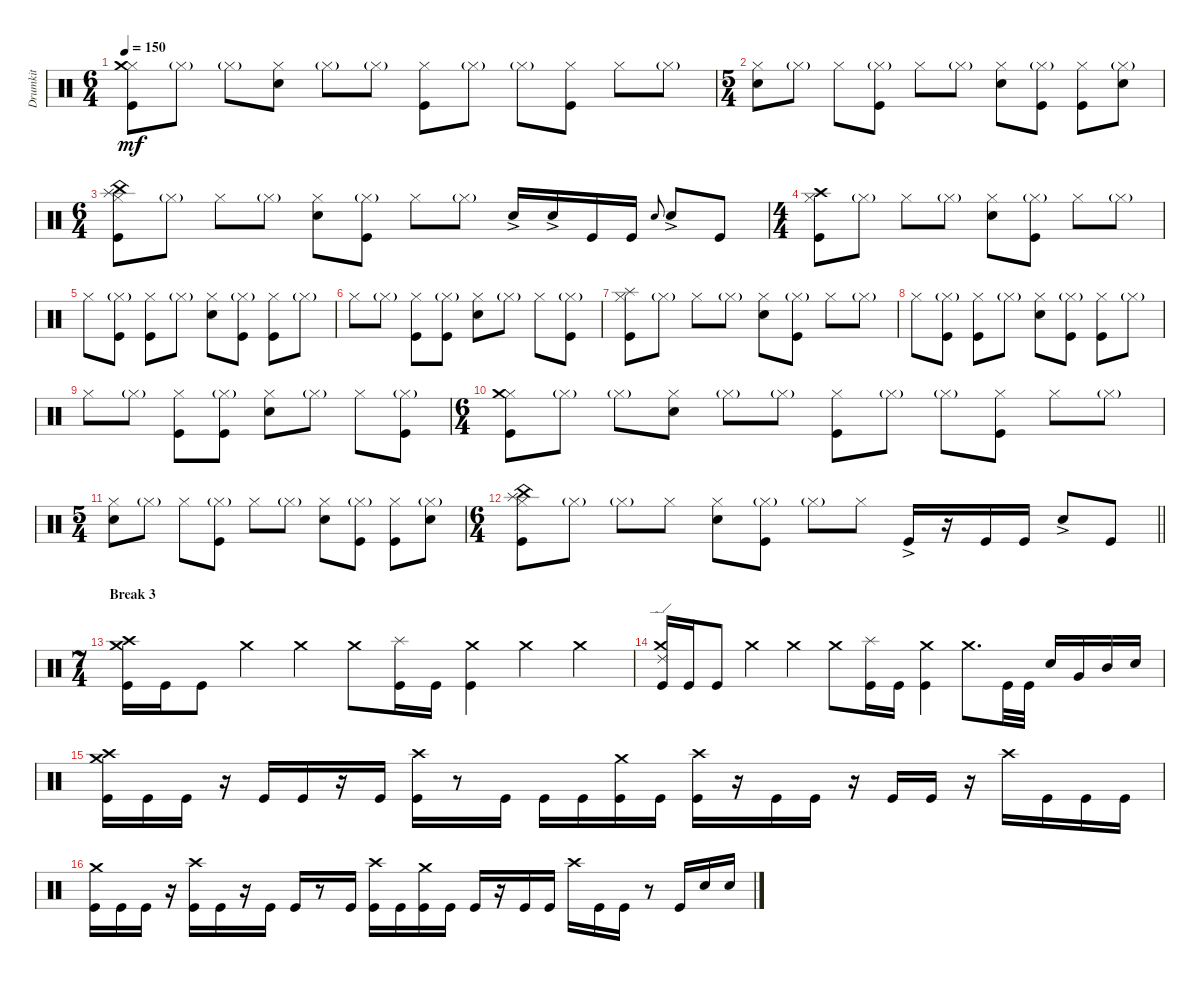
\track ("Drumkit" "Drumkit") {instrument percussion}
\staff {score}
\articulation defaults
\ts (6 4)
\tempo 150
\clef neutral
\ks c
("Hi-Hat (closed)" "Kick (hit)" "Crash medium (hit)").8{dy mf} "Hi-Hat (closed)"{g}.8 "Hi-Hat (closed)"{g}.8 ("Hi-Hat (closed)" "Snare (hit) 2").8 "Hi-Hat (closed)"{g}.8 "Hi-Hat (closed)"{g}.8 ("Hi-Hat (closed)" "Kick (hit)").8 "Hi-Hat (closed)"{g}.8 "Hi-Hat (closed)"{g}.8 ("Hi-Hat (closed)" "Kick (hit)").8 "Hi-Hat (closed)".8 "Hi-Hat (closed)"{g}.8 |
\ts (5 4)
("Snare (hit) 2" "Hi-Hat (closed)").8 "Hi-Hat (closed)"{g}.8 "Hi-Hat (closed)".8 ("Hi-Hat (closed)"{g} "Kick (hit)").8 "Hi-Hat (closed)".8 "Hi-Hat (closed)"{g}.8 ("Hi-Hat (closed)" "Snare (hit) 2").8 ("Hi-Hat (closed)"{g} "Kick (hit)").8 ("Hi-Hat (closed)" "Kick (hit)").8 ("Hi-Hat (closed)"{g} "Snare (hit) 2").8 |
\ts (6 4)
("Hi-Hat (closed)" "Kick (hit)" "Splash (hit)" "China (hit)").8 "Hi-Hat (closed)"{g}.8 "Hi-Hat (closed)".8 "Hi-Hat (closed)"{g}.8 ("Hi-Hat (closed)" "Snare (hit) 2").8 ("Hi-Hat (closed)"{g} "Kick (hit)").8 "Hi-Hat (closed)".8 "Hi-Hat (closed)"{g}.8 "Snare (hit) 2"{ac}.16 "Snare (hit) 2"{ac}.16 "Kick (hit)".16 "Kick (hit)".16 "Snare (hit)".8{gr onbeat} "Snare (hit) 2"{ac}.8 "Kick (hit)".8 |
\ts (4 4)
("Hi-Hat (closed)" "Crash high (hit)" "Kick (hit)").8 "Hi-Hat (closed)"{g}.8 "Hi-Hat (closed)".8 "Hi-Hat (closed)"{g}.8 ("Hi-Hat (closed)" "Snare (hit) 2").8 ("Hi-Hat (closed)"{g} "Kick (hit)").8 "Hi-Hat (closed)".8 "Hi-Hat (closed)"{g}.8 |
"Hi-Hat (closed)".8 ("Hi-Hat (closed)"{g} "Kick (hit)").8 ("Hi-Hat (closed)" "Kick (hit)").8 "Hi-Hat (closed)"{g}.8 ("Hi-Hat (closed)" "Snare (hit) 2").8 ("Hi-Hat (closed)"{g} "Kick (hit)").8 ("Hi-Hat (closed)" "Kick (hit)").8 "Hi-Hat (closed)"{g}.8 |
"Hi-Hat (closed)".8 "Hi-Hat (closed)"{g}.8 ("Hi-Hat (closed)" "Kick (hit)").8 ("Hi-Hat (closed)"{g} "Kick (hit)").8 ("Hi-Hat (closed)" "Snare (hit) 2").8 "Hi-Hat (closed)"{g}.8 "Hi-Hat (closed)".8 ("Hi-Hat (closed)"{g} "Kick (hit)").8 |
("Hi-Hat (closed)" "Kick (hit)" "Splash (hit)").8 "Hi-Hat (closed)"{g}.8 "Hi-Hat (closed)".8 "Hi-Hat (closed)"{g}.8 ("Hi-Hat (closed)" "Snare (hit) 2").8 ("Hi-Hat (closed)"{g} "Kick (hit)").8 "Hi-Hat (closed)".8 "Hi-Hat (closed)"{g}.8 |
"Hi-Hat (closed)".8 ("Hi-Hat (closed)"{g} "Kick (hit)").8 ("Hi-Hat (closed)" "Kick (hit)").8 "Hi-Hat (closed)"{g}.8 ("Hi-Hat (closed)" "Snare (hit) 2").8 ("Hi-Hat (closed)"{g} "Kick (hit)").8 ("Hi-Hat (closed)" "Kick (hit)").8 "Hi-Hat (closed)"{g}.8 |
"Hi-Hat (closed)".8 "Hi-Hat (closed)"{g}.8 ("Hi-Hat (closed)" "Kick (hit)").8 ("Hi-Hat (closed)"{g} "Kick (hit)").8 ("Hi-Hat (closed)" "Snare (hit) 2").8 "Hi-Hat (closed)"{g}.8 "Hi-Hat (closed)".8 ("Hi-Hat (closed)"{g} "Kick (hit)").8 |
\ts (6 4)
("Hi-Hat (closed)" "Kick (hit)" "Crash medium (hit)").8 "Hi-Hat (closed)"{g}.8 "Hi-Hat (closed)"{g}.8 ("Hi-Hat (closed)" "Snare (hit) 2").8 "Hi-Hat (closed)"{g}.8 "Hi-Hat (closed)"{g}.8 ("Hi-Hat (closed)" "Kick (hit)").8 "Hi-Hat (closed)"{g}.8 "Hi-Hat (closed)"{g}.8 ("Hi-Hat (closed)" "Kick (hit)").8 "Hi-Hat (closed)".8 "Hi-Hat (closed)"{g}.8 |
\ts (5 4)
("Snare (hit) 2" "Hi-Hat (closed)").8 "Hi-Hat (closed)"{g}.8 "Hi-Hat (closed)".8 ("Hi-Hat (closed)"{g} "Kick (hit)").8 "Hi-Hat (closed)".8 "Hi-Hat (closed)"{g}.8 ("Hi-Hat (closed)" "Snare (hit) 2").8 ("Hi-Hat (closed)"{g} "Kick (hit)").8 ("Hi-Hat (closed)" "Kick (hit)").8 ("Hi-Hat (closed)"{g} "Snare (hit) 2").8 |
\ts (6 4)
\barLineRight lightlight
("Hi-Hat (closed)" "Kick (hit)" "Splash (hit)" "China (hit)").8 "Hi-Hat (closed)"{g}.8 "Hi-Hat (closed)"{g}.8 "Hi-Hat (closed)".8 ("Hi-Hat (closed)" "Snare (hit) 2").8 ("Hi-Hat (closed)"{g} "Kick (hit)").8 "Hi-Hat (closed)"{g}.8 "Hi-Hat (closed)".8 "Kick (hit)"{ac}.16 r.16 "Kick (hit)".16 "Kick (hit)".16 "Snare (hit) 2"{ac}.8 "Kick (hit)".8 |
\ts (7 4)
\section ("" "Break 3")
("Kick (hit)" "Crash medium (hit)" "Crash high (hit)").16 "Kick (hit)".16 "Kick (hit)".8 "Crash medium (hit)".4 "Crash medium (hit)".4 "Crash medium (hit)".8 ("Kick (hit)" "Splash (hit)").16 "Kick (hit)".16 ("Kick (hit)" "Crash medium (hit)").4 "Crash medium (hit)".4 "Crash medium (hit)".4 |
("Kick (hit)" "Crash medium (hit)" "Ride (edge) 2").16 "Kick (hit)".16 "Kick (hit)".8 "Crash medium (hit)".4 "Crash medium (hit)".4 "Crash medium (hit)".8 ("Kick (hit)" "Splash (hit)").16 "Kick (hit)".16 ("Kick (hit)" "Crash medium (hit)").4 "Crash medium (hit)".8{d} "Kick (hit)".32 "Kick (hit)".32 "Snare (hit) 2".16 "Very Low Tom (hit)".16 "Mid Tom (hit)".16 "Snare (hit) 2".16 |
("Kick (hit)" "Crash high (hit)" "Crash medium (hit)").16 "Kick (hit)".16 "Kick (hit)".16 r.16 "Kick (hit)".16 "Kick (hit)".16 r.16 "Kick (hit)".16 ("Kick (hit)" "Crash high (hit)").16 r.8 "Kick (hit)".16 "Kick (hit)".16 "Kick (hit)".16 ("Kick (hit)" "Crash medium (hit)").16 "Kick (hit)".16 ("Kick (hit)" "Crash high (hit)").16 r.16 "Kick (hit)".16 "Kick (hit)".16 r.16 "Kick (hit)".16 "Kick (hit)".16 r.16 "Crash high (hit)".16 "Kick (hit)".16 "Kick (hit)".16 "Kick (hit)".16 |
("Kick (hit)" "Crash medium (hit)").16 "Kick (hit)".16 "Kick (hit)".16 r.16 ("Kick (hit)" "Crash high (hit)").16 "Kick (hit)".16 r.16 "Kick (hit)".16 "Kick (hit)".16 r.8 "Kick (hit)".16 ("Kick (hit)" "Crash high (hit)").16 "Kick (hit)".16 ("Kick (hit)" "Crash medium (hit)").16 "Kick (hit)".16 "Kick (hit)".16 r.16 "Kick (hit)".16 "Kick (hit)".16 "Crash high (hit)".16 "Kick (hit)".16 "Kick (hit)".16 r.8 "Kick (hit)".16 "Snare (hit) 2".16 "Snare (hit) 2".16
